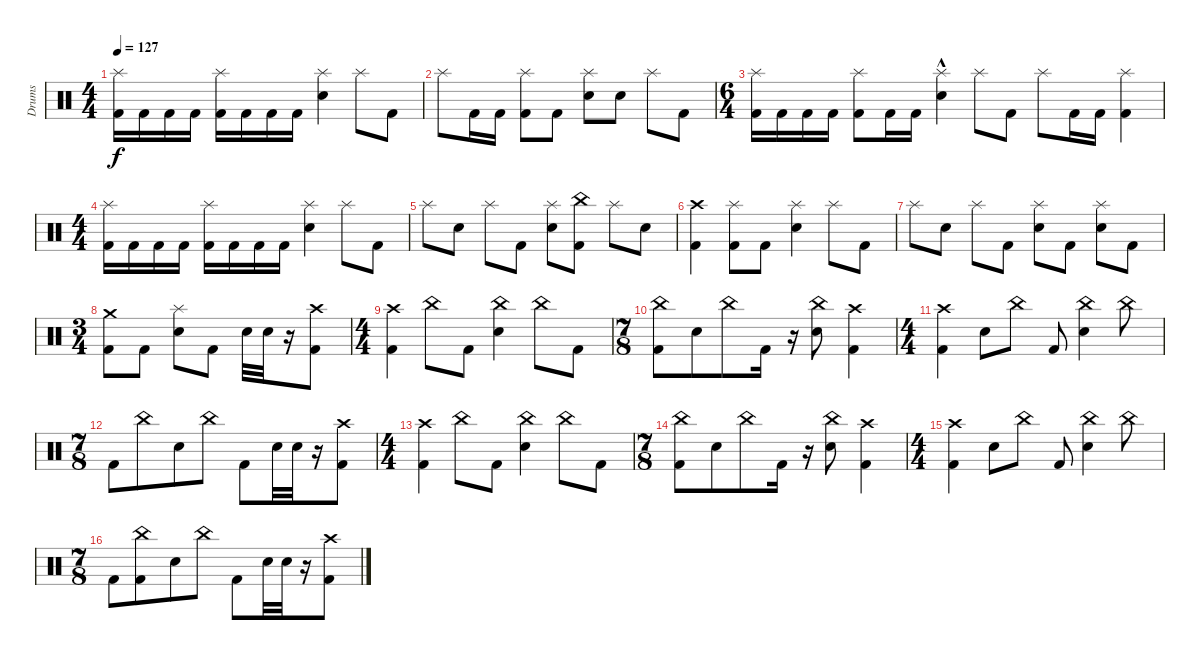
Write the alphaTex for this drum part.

\track ("Drums" "Drums") {instrument percussion}
\staff {score}
\articulation defaults
\ts (4 4)
\tempo 127
\clef neutral
\ks c
("Splash (hit)" "Kick (hit) 2").16{dy f} "Kick (hit) 2".16 "Kick (hit) 2".16 "Kick (hit) 2".16 ("Splash (hit)" "Kick (hit) 2").16 "Kick (hit) 2".16 "Kick (hit) 2".16 "Kick (hit) 2".16 ("Splash (hit)" "Electric Snare (hit)").4 "Splash (hit)".8 "Kick (hit) 2".8 |
"Splash (hit)".8 "Kick (hit) 2".16 "Kick (hit) 2".16 ("Splash (hit)" "Kick (hit) 2").8 "Kick (hit) 2".8 ("Splash (hit)" "Electric Snare (hit)").8 "Electric Snare (hit)".8 "Splash (hit)".8 "Kick (hit) 2".8 |
\ts (6 4)
("Splash (hit)" "Kick (hit) 2").16 "Kick (hit) 2".16 "Kick (hit) 2".16 "Kick (hit) 2".16 ("Kick (hit) 2" "Splash (hit)").8 "Kick (hit) 2".16 "Kick (hit) 2".16 ("Electric Snare (hit)"{hac} "Splash (hit)").4 "Splash (hit)".8 "Kick (hit) 2".8 "Splash (hit)".8 "Kick (hit) 2".16 "Kick (hit) 2".16 ("Splash (hit)" "Kick (hit) 2").4 |
\ts (4 4)
("Splash (hit)" "Kick (hit) 2").16 "Kick (hit) 2".16 "Kick (hit) 2".16 "Kick (hit) 2".16 ("Splash (hit)" "Kick (hit) 2").16 "Kick (hit) 2".16 "Kick (hit) 2".16 "Kick (hit) 2".16 ("Splash (hit)" "Electric Snare (hit)").4 "Splash (hit)".8 "Kick (hit) 2".8 |
"Splash (hit)".8 "Electric Snare (hit)".8 "Splash (hit)".8 "Kick (hit) 2".8 ("Electric Snare (hit)" "Splash (hit)").8 ("Kick (hit) 2" "China (hit)").8 "Splash (hit)".8 "Electric Snare (hit)".8 |
("Crash high (hit)" "Kick (hit) 2").4 ("Splash (hit)" "Kick (hit) 2").8 "Kick (hit) 2".8 ("Splash (hit)" "Electric Snare (hit)").4 "Splash (hit)".8 "Kick (hit) 2".8 |
"Splash (hit)".8 "Electric Snare (hit)".8 "Splash (hit)".8 "Kick (hit) 2".8 ("Splash (hit)" "Electric Snare (hit)").8 "Kick (hit) 2".8 ("Splash (hit)" "Electric Snare (hit)").8 "Kick (hit) 2".8 |
\ts (3 4)
("Kick (hit) 2" "Crash medium (hit)").8 "Kick (hit) 2".8 ("Electric Snare (hit)" "Splash (hit)").8 "Kick (hit) 2".8 "Electric Snare (hit)".32 "Electric Snare (hit)".32 r.16 ("Kick (hit) 2" "Crash high (hit)").8 |
\ts (4 4)
("Kick (hit) 2" "Crash high (hit)").4 "China (hit)".8 "Kick (hit) 2".8 ("Electric Snare (hit)" "China (hit)").4 "China (hit)".8 "Kick (hit) 2".8 |
\ts (7 8)
("Kick (hit) 2" "China (hit)").8 "Electric Snare (hit)".8 "China (hit)".8 "Kick (hit) 2".16 r.16 ("Electric Snare (hit)" "China (hit)").8 ("Kick (hit) 2" "Crash high (hit)").4 |
\ts (4 4)
("Crash high (hit)" "Kick (hit) 2").4 "Electric Snare (hit)".8 "China (hit)".8 "Kick (hit) 2".8 ("China (hit)" "Electric Snare (hit)").4 "China (hit)".8 |
\ts (7 8)
"Kick (hit) 2".8 "China (hit)".8 "Electric Snare (hit)".8 "China (hit)".8 "Kick (hit) 2".8 "Electric Snare (hit)".32 "Electric Snare (hit)".32 r.16 ("Kick (hit) 2" "Crash high (hit)").8 |
\ts (4 4)
("Crash high (hit)" "Kick (hit) 2").4 "China (hit)".8 "Kick (hit) 2".8 ("Electric Snare (hit)" "China (hit)").4 "China (hit)".8 "Kick (hit) 2".8 |
\ts (7 8)
("Kick (hit) 2" "China (hit)").8 "Electric Snare (hit)".8 "China (hit)".8 "Kick (hit) 2".16 r.16 ("Electric Snare (hit)" "China (hit)").8 ("Kick (hit) 2" "Crash high (hit)").4 |
\ts (4 4)
("Crash high (hit)" "Kick (hit) 2").4 "Electric Snare (hit)".8 "China (hit)".8 "Kick (hit) 2".8 ("China (hit)" "Electric Snare (hit)").4 "China (hit)".8 |
\ts (7 8)
"Kick (hit) 2".8 ("China (hit)" "Kick (hit) 2").8 "Electric Snare (hit)".8 "China (hit)".8 "Kick (hit) 2".8 "Electric Snare (hit)".32 "Electric Snare (hit)".32 r.16 ("Kick (hit) 2" "Crash high (hit)").8
